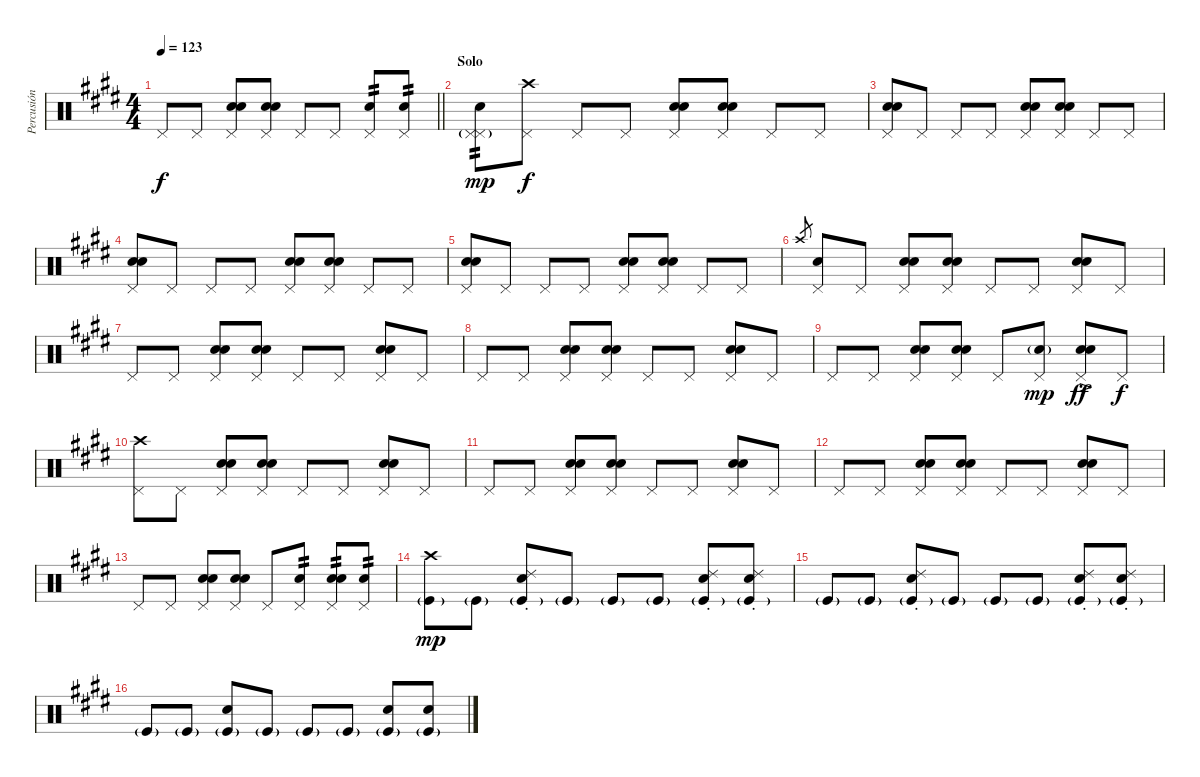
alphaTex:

\track ("Percusión" "Percusión") {instrument percussion}
\staff {score}
\articulation defaults
\ts (4 4)
\tempo 123
\clef neutral
\barLineRight lightlight
\ks e "Pedal Hi-Hat (hit)".8{dy f} "Pedal Hi-Hat (hit)".8
("Pedal Hi-Hat (hit)" "Snare (hit) 2" "Electric Snare (hit)").8 ("Pedal Hi-Hat (hit)" "Snare (hit) 2" "Electric Snare (hit)").8 "Pedal Hi-Hat (hit)".8 "Pedal Hi-Hat (hit)".8 ("Pedal Hi-Hat (hit)" "Snare (hit) 2").8{tp 2} ("Pedal Hi-Hat (hit)" "Snare (hit) 2").8{tp 2} |
\section ("" "Solo")
("Pedal Hi-Hat (hit)" "Pedal Hi-Hat (hit)"{g} "Snare (hit) 2").8{tp 2 dy mp} ("Pedal Hi-Hat (hit)" "Crash high (hit)").8{dy f} "Pedal Hi-Hat (hit)".8 "Pedal Hi-Hat (hit)".8 ("Pedal Hi-Hat (hit)" "Snare (hit) 2" "Electric Snare (hit)").8 ("Pedal Hi-Hat (hit)" "Snare (hit) 2" "Electric Snare (hit)").8 "Pedal Hi-Hat (hit)".8 "Pedal Hi-Hat (hit)".8 |
("Pedal Hi-Hat (hit)" "Electric Snare (hit)" "Snare (hit) 2").8 "Pedal Hi-Hat (hit)".8 "Pedal Hi-Hat (hit)".8 "Pedal Hi-Hat (hit)".8 ("Pedal Hi-Hat (hit)" "Snare (hit) 2" "Electric Snare (hit)").8 ("Pedal Hi-Hat (hit)" "Snare (hit) 2" "Electric Snare (hit)").8 "Pedal Hi-Hat (hit)".8 "Pedal Hi-Hat (hit)".8 |
("Pedal Hi-Hat (hit)" "Snare (hit) 2" "Electric Snare (hit)").8 "Pedal Hi-Hat (hit)".8 "Pedal Hi-Hat (hit)".8 "Pedal Hi-Hat (hit)".8 ("Pedal Hi-Hat (hit)" "Electric Snare (hit)" "Snare (hit) 2").8 ("Pedal Hi-Hat (hit)" "Snare (hit) 2" "Electric Snare (hit)").8 "Pedal Hi-Hat (hit)".8 "Pedal Hi-Hat (hit)".8 |
("Pedal Hi-Hat (hit)" "Electric Snare (hit)" "Snare (hit) 2").8 "Pedal Hi-Hat (hit)".8 "Pedal Hi-Hat (hit)".8 "Pedal Hi-Hat (hit)".8 ("Pedal Hi-Hat (hit)" "Snare (hit) 2" "Electric Snare (hit)").8 ("Pedal Hi-Hat (hit)" "Electric Snare (hit)" "Snare (hit) 2").8 "Pedal Hi-Hat (hit)".8 "Pedal Hi-Hat (hit)".8 |
"Crash high (hit)".8{gr} ("Pedal Hi-Hat (hit)" "Snare (hit) 2").8 "Pedal Hi-Hat (hit)".8 ("Pedal Hi-Hat (hit)" "Snare (hit) 2" "Electric Snare (hit)").8 ("Pedal Hi-Hat (hit)" "Snare (hit) 2" "Electric Snare (hit)").8 "Pedal Hi-Hat (hit)".8 "Pedal Hi-Hat (hit)".8 ("Pedal Hi-Hat (hit)" "Snare (hit) 2" "Electric Snare (hit)").8 "Pedal Hi-Hat (hit)".8 |
"Pedal Hi-Hat (hit)".8 "Pedal Hi-Hat (hit)".8 ("Pedal Hi-Hat (hit)" "Snare (hit) 2" "Electric Snare (hit)").8 ("Pedal Hi-Hat (hit)" "Electric Snare (hit)" "Snare (hit) 2").8 "Pedal Hi-Hat (hit)".8 "Pedal Hi-Hat (hit)".8 ("Pedal Hi-Hat (hit)" "Snare (hit) 2" "Electric Snare (hit)").8 "Pedal Hi-Hat (hit)".8 |
"Pedal Hi-Hat (hit)".8 "Pedal Hi-Hat (hit)".8 ("Pedal Hi-Hat (hit)" "Snare (hit) 2" "Electric Snare (hit)").8 ("Pedal Hi-Hat (hit)" "Snare (hit) 2" "Electric Snare (hit)").8 "Pedal Hi-Hat (hit)".8 "Pedal Hi-Hat (hit)".8 ("Pedal Hi-Hat (hit)" "Electric Snare (hit)" "Snare (hit) 2").8 "Pedal Hi-Hat (hit)".8 |
"Pedal Hi-Hat (hit)".8 "Pedal Hi-Hat (hit)".8 ("Pedal Hi-Hat (hit)" "Snare (hit) 2" "Electric Snare (hit)").8 ("Pedal Hi-Hat (hit)" "Snare (hit) 2" "Electric Snare (hit)").8 "Pedal Hi-Hat (hit)".8 ("Pedal Hi-Hat (hit)" "Snare (hit) 2"{g}).8{dy mp} ("Pedal Hi-Hat (hit)" "Electric Snare (hit)" "Snare (hit) 2"{ac}).8{dy ff} "Pedal Hi-Hat (hit)".8{dy f} |
("Pedal Hi-Hat (hit)" "Crash high (hit)").8 "Pedal Hi-Hat (hit)".8 ("Pedal Hi-Hat (hit)" "Electric Snare (hit)" "Snare (hit) 2").8 ("Pedal Hi-Hat (hit)" "Snare (hit) 2" "Electric Snare (hit)").8 "Pedal Hi-Hat (hit)".8 "Pedal Hi-Hat (hit)".8 ("Pedal Hi-Hat (hit)" "Electric Snare (hit)" "Snare (hit) 2").8 "Pedal Hi-Hat (hit)".8 |
"Pedal Hi-Hat (hit)".8 "Pedal Hi-Hat (hit)".8 ("Pedal Hi-Hat (hit)" "Snare (hit) 2" "Electric Snare (hit)").8 ("Pedal Hi-Hat (hit)" "Electric Snare (hit)" "Snare (hit) 2").8 "Pedal Hi-Hat (hit)".8 "Pedal Hi-Hat (hit)".8 ("Pedal Hi-Hat (hit)" "Snare (hit) 2" "Electric Snare (hit)").8 "Pedal Hi-Hat (hit)".8 |
"Pedal Hi-Hat (hit)".8 "Pedal Hi-Hat (hit)".8 ("Pedal Hi-Hat (hit)" "Electric Snare (hit)" "Snare (hit) 2").8 ("Pedal Hi-Hat (hit)" "Snare (hit) 2" "Electric Snare (hit)").8 "Pedal Hi-Hat (hit)".8 "Pedal Hi-Hat (hit)".8 ("Pedal Hi-Hat (hit)" "Electric Snare (hit)" "Snare (hit) 2").8 "Pedal Hi-Hat (hit)".8 |
"Pedal Hi-Hat (hit)".8 "Pedal Hi-Hat (hit)".8 ("Pedal Hi-Hat (hit)" "Snare (hit) 2" "Electric Snare (hit)").8 ("Pedal Hi-Hat (hit)" "Snare (hit) 2" "Electric Snare (hit)").8 "Pedal Hi-Hat (hit)".8 ("Pedal Hi-Hat (hit)" "Snare (hit) 2").8{tp 2} ("Pedal Hi-Hat (hit)" "Electric Snare (hit)" "Snare (hit) 2").8{tp 2} ("Pedal Hi-Hat (hit)" "Snare (hit) 2").8{tp 2} |
("Kick (hit)"{g} "Crash high (hit)").8{dy mp volume 9} "Kick (hit)"{g}.8 ("Kick (hit)"{g} "Hand Clap (hit)" "Ride (choke) 2").8 "Kick (hit)"{g}.8 "Kick (hit)"{g}.8 "Kick (hit)"{g}.8 ("Kick (hit)"{g} "Hand Clap (hit)" "Ride (choke) 2").8 ("Kick (hit)"{g} "Hand Clap (hit)" "Ride (choke) 2").8 |
"Kick (hit)"{g}.8 "Kick (hit)"{g}.8 ("Kick (hit)"{g} "Hand Clap (hit)" "Ride (choke) 2").8 "Kick (hit)"{g}.8 "Kick (hit)"{g}.8 "Kick (hit)"{g}.8 ("Kick (hit)"{g} "Hand Clap (hit)" "Ride (choke) 2").8 ("Kick (hit)"{g} "Hand Clap (hit)" "Ride (choke) 2").8 |
"Kick (hit)"{g}.8 "Kick (hit)"{g}.8 ("Kick (hit)"{g} "Hand Clap (hit)").8 "Kick (hit)"{g}.8 "Kick (hit)"{g}.8 "Kick (hit)"{g}.8 ("Kick (hit)"{g} "Hand Clap (hit)").8 ("Kick (hit)"{g} "Hand Clap (hit)").8
